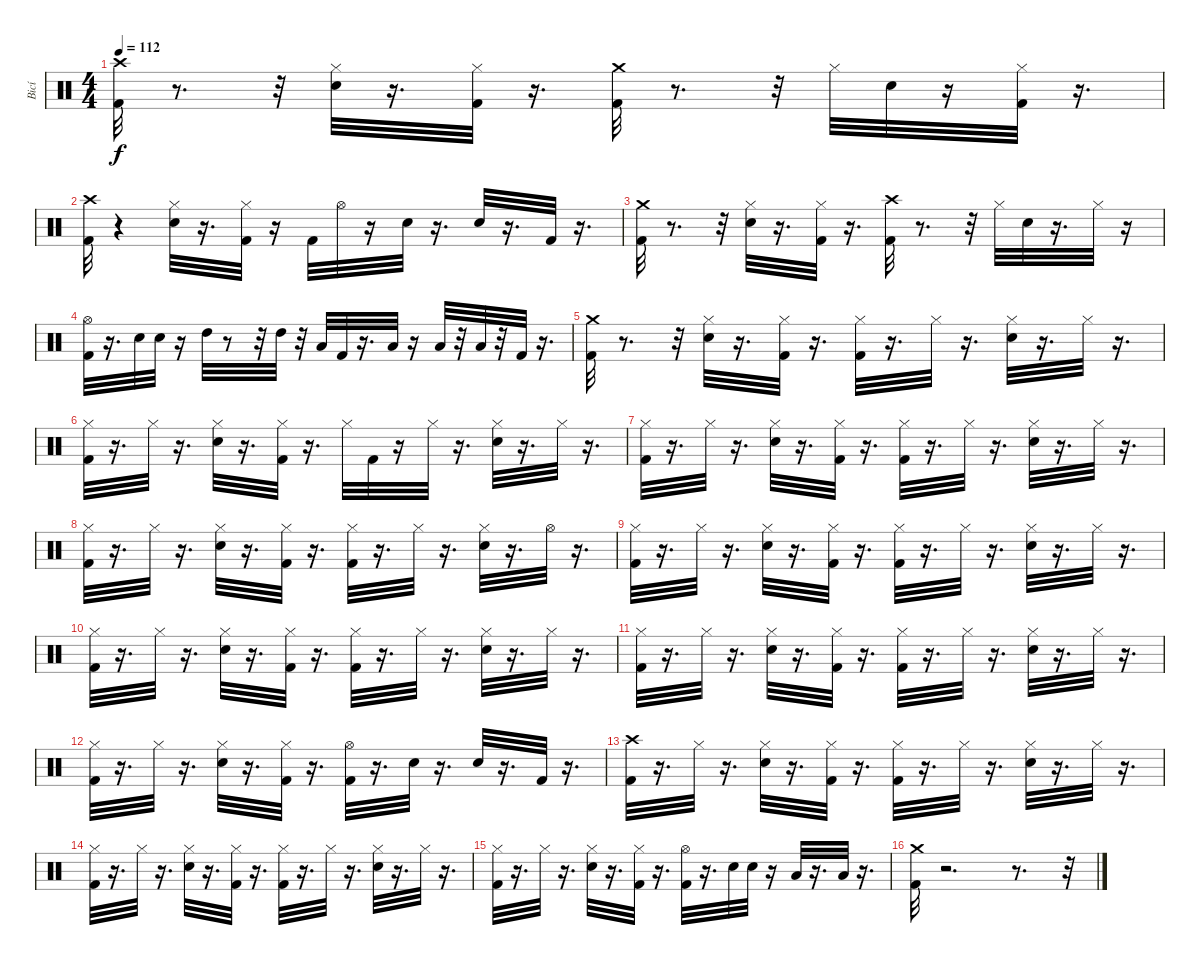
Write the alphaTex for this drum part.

\track ("Bicí" "Bicí") {instrument percussion}
\staff {score}
\articulation defaults
\ts (4 4)
\tempo 112
\clef neutral
\ks c
("Kick (hit) 2" "Crash high (hit)").32{dy f} r.8{d} r.32 ("Hi-Hat (closed)" "Snare (hit) 2").32 r.16{d} ("Kick (hit) 2" "Hi-Hat (closed)").32 r.16{d} ("Kick (hit) 2" "Crash medium (hit)").32 r.8{d} r.32 "Hi-Hat (closed)".32 "Snare (hit) 2".32 r.16 ("Kick (hit) 2" "Hi-Hat (closed)").32 r.16{d} |
("Kick (hit) 2" "Crash high (hit)").32 r.4 ("Hi-Hat (closed)" "Snare (hit) 2").32 r.16{d} ("Kick (hit) 2" "Hi-Hat (closed)").32 r.16 "Kick (hit) 2".32 "Hi-Hat (open)".32 r.16 "Snare (hit) 2".32 r.16{d} "Snare (hit) 2".32 r.16{d} "Kick (hit) 2".32 r.16{d} |
("Kick (hit) 2" "Crash medium (hit)").32 r.8{d} r.32 ("Hi-Hat (closed)" "Snare (hit) 2").32 r.16{d} ("Kick (hit) 2" "Hi-Hat (closed)").32 r.16{d} ("Kick (hit) 2" "Crash high (hit)").32 r.8{d} r.32 "Hi-Hat (closed)".32 "Snare (hit) 2".32 r.16{d} "Hi-Hat (closed)".32 r.16 |
("Kick (hit) 2" "Hi-Hat (open)").32 r.16{d} "Snare (hit) 2".32 "Snare (hit) 2".32 r.16 "High Tom (hit)".32 r.8 r.32 "High Tom (hit)".32 r.32 "Low Tom (hit)".32 "Kick (hit) 2".32 r.16{d} "Low Tom (hit)".32 r.16 "Low Floor Tom (hit)".32 r.32 "Low Floor Tom (hit)".32 r.32 "Kick (hit) 2".32 r.16{d} |
("Kick (hit) 2" "Crash medium (hit)").32 r.8{d} r.32 ("Hi-Hat (closed)" "Snare (hit) 2").32 r.16{d} ("Kick (hit) 2" "Hi-Hat (closed)").32 r.16{d} ("Kick (hit) 2" "Hi-Hat (closed)").32 r.16{d} "Hi-Hat (closed)".32 r.16{d} ("Snare (hit) 2" "Hi-Hat (closed)").32 r.16{d} "Hi-Hat (closed)".32 r.16{d} |
("Kick (hit) 2" "Hi-Hat (closed)").32 r.16{d} "Hi-Hat (closed)".32 r.16{d} ("Hi-Hat (closed)" "Snare (hit) 2").32 r.16{d} ("Kick (hit) 2" "Hi-Hat (closed)").32 r.16{d} "Hi-Hat (closed)".32 "Kick (hit) 2".32 r.16 "Hi-Hat (closed)".32 r.16{d} ("Hi-Hat (closed)" "Snare (hit) 2").32 r.16{d} "Hi-Hat (closed)".32 r.16{d} |
("Kick (hit) 2" "Hi-Hat (closed)").32 r.16{d} "Hi-Hat (closed)".32 r.16{d} ("Snare (hit) 2" "Hi-Hat (closed)").32 r.16{d} ("Kick (hit) 2" "Hi-Hat (closed)").32 r.16{d} ("Kick (hit) 2" "Hi-Hat (closed)").32 r.16{d} "Hi-Hat (closed)".32 r.16{d} ("Snare (hit) 2" "Hi-Hat (closed)").32 r.16{d} "Hi-Hat (closed)".32 r.16{d} |
("Kick (hit) 2" "Hi-Hat (closed)").32 r.16{d} "Hi-Hat (closed)".32 r.16{d} ("Hi-Hat (closed)" "Snare (hit) 2").32 r.16{d} ("Kick (hit) 2" "Hi-Hat (closed)").32 r.16{d} ("Kick (hit) 2" "Hi-Hat (closed)").32 r.16{d} "Hi-Hat (closed)".32 r.16{d} ("Snare (hit) 2" "Hi-Hat (closed)").32 r.16{d} "Hi-Hat (open)".32 r.16{d} |
("Kick (hit) 2" "Hi-Hat (closed)").32 r.16{d} "Hi-Hat (closed)".32 r.16{d} ("Hi-Hat (closed)" "Snare (hit) 2").32 r.16{d} ("Kick (hit) 2" "Hi-Hat (closed)").32 r.16{d} ("Kick (hit) 2" "Hi-Hat (closed)").32 r.16{d} "Hi-Hat (closed)".32 r.16{d} ("Snare (hit) 2" "Hi-Hat (closed)").32 r.16{d} "Hi-Hat (closed)".32 r.16{d} |
("Kick (hit) 2" "Hi-Hat (closed)").32 r.16{d} "Hi-Hat (closed)".32 r.16{d} ("Snare (hit) 2" "Hi-Hat (closed)").32 r.16{d} ("Kick (hit) 2" "Hi-Hat (closed)").32 r.16{d} ("Kick (hit) 2" "Hi-Hat (closed)").32 r.16{d} "Hi-Hat (closed)".32 r.16{d} ("Snare (hit) 2" "Hi-Hat (closed)").32 r.16{d} "Hi-Hat (closed)".32 r.16{d} |
("Kick (hit) 2" "Hi-Hat (closed)").32 r.16{d} "Hi-Hat (closed)".32 r.16{d} ("Hi-Hat (closed)" "Snare (hit) 2").32 r.16{d} ("Kick (hit) 2" "Hi-Hat (closed)").32 r.16{d} ("Kick (hit) 2" "Hi-Hat (closed)").32 r.16{d} "Hi-Hat (closed)".32 r.16{d} ("Snare (hit) 2" "Hi-Hat (closed)").32 r.16{d} "Hi-Hat (closed)".32 r.16{d} |
("Kick (hit) 2" "Hi-Hat (closed)").32 r.16{d} "Hi-Hat (closed)".32 r.16{d} ("Snare (hit) 2" "Hi-Hat (closed)").32 r.16{d} ("Kick (hit) 2" "Hi-Hat (closed)").32 r.16{d} ("Kick (hit) 2" "Hi-Hat (open)").32 r.16{d} "Snare (hit) 2".32 r.16{d} "Snare (hit) 2".32 r.16{d} "Kick (hit) 2".32 r.16{d} |
("Kick (hit) 2" "Crash high (hit)").32 r.16{d} "Hi-Hat (closed)".32 r.16{d} ("Hi-Hat (closed)" "Snare (hit) 2").32 r.16{d} ("Kick (hit) 2" "Hi-Hat (closed)").32 r.16{d} ("Kick (hit) 2" "Hi-Hat (closed)").32 r.16{d} "Hi-Hat (closed)".32 r.16{d} ("Hi-Hat (closed)" "Snare (hit) 2").32 r.16{d} "Hi-Hat (closed)".32 r.16{d} |
("Kick (hit) 2" "Hi-Hat (closed)").32 r.16{d} "Hi-Hat (closed)".32 r.16{d} ("Snare (hit) 2" "Hi-Hat (closed)").32 r.16{d} ("Kick (hit) 2" "Hi-Hat (closed)").32 r.16{d} ("Kick (hit) 2" "Hi-Hat (closed)").32 r.16{d} "Hi-Hat (closed)".32 r.16{d} ("Snare (hit) 2" "Hi-Hat (closed)").32 r.16{d} "Hi-Hat (closed)".32 r.16{d} |
("Kick (hit) 2" "Hi-Hat (closed)").32 r.16{d} "Hi-Hat (closed)".32 r.16{d} ("Snare (hit) 2" "Hi-Hat (closed)").32 r.16{d} ("Kick (hit) 2" "Hi-Hat (closed)").32 r.16{d} ("Kick (hit) 2" "Hi-Hat (open)").32 r.16{d} "Snare (hit) 2".32 "Snare (hit) 2".32 r.16 "Low Tom (hit)".32 r.16{d} "Low Floor Tom (hit)".32 r.16{d} |
("Kick (hit) 2" "Crash medium (hit)").32 r.2{d} r.8{d} r.32
